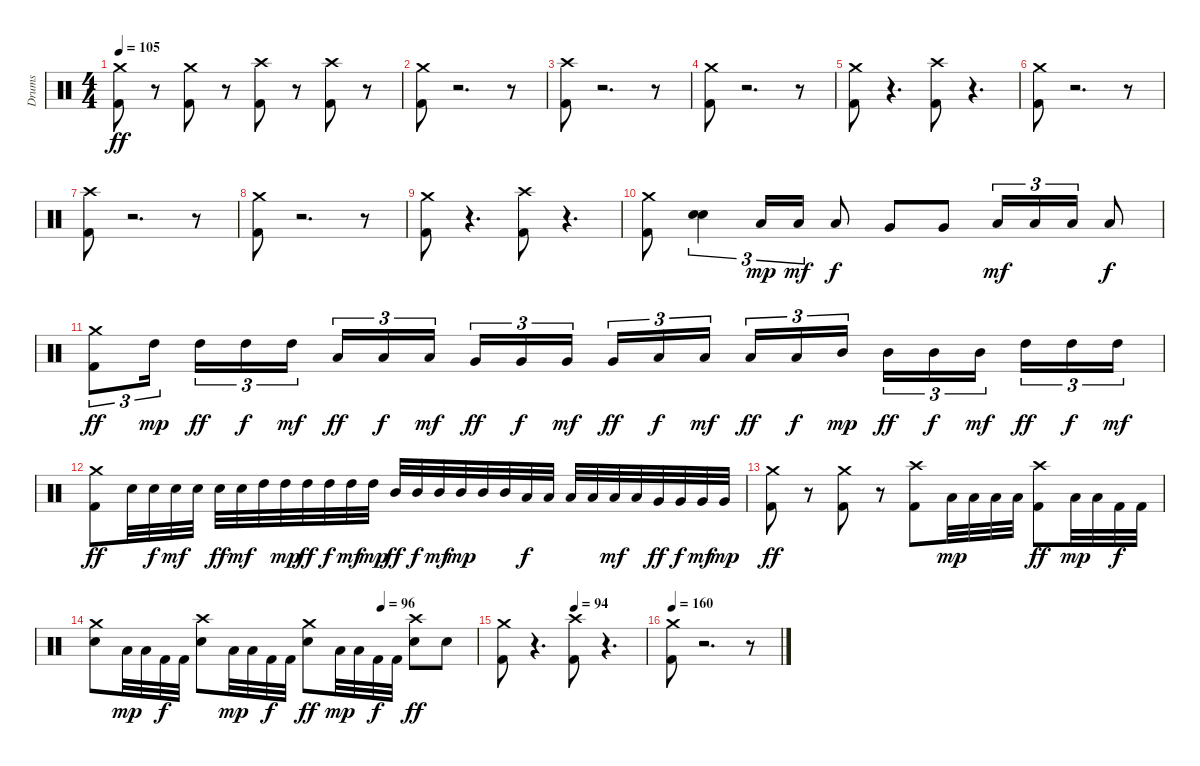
\track ("Drums" "Drums") {instrument percussion}
\staff {score}
\articulation defaults
\ts (4 4)
\tempo 105
\clef neutral
\ks c
("Kick (hit) 2" "Crash medium (hit)").8{dy ff} r.8 ("Kick (hit) 2" "Crash medium (hit)").8 r.8 ("Kick (hit) 2" "Crash high (hit)").8 r.8 ("Kick (hit) 2" "Crash high (hit)").8 r.8 |
("Kick (hit) 2" "Crash medium (hit)").8 r.2{d} r.8 |
("Kick (hit) 2" "Crash high (hit)").8 r.2{d} r.8 |
("Kick (hit) 2" "Crash medium (hit)").8 r.2{d} r.8 |
("Kick (hit) 2" "Crash medium (hit)").8 r.4{d} ("Kick (hit) 2" "Crash high (hit)").8 r.4{d} |
("Kick (hit) 2" "Crash medium (hit)").8 r.2{d} r.8 |
("Kick (hit) 2" "Crash high (hit)").8 r.2{d} r.8 |
("Kick (hit) 2" "Crash medium (hit)").8 r.2{d} r.8 |
("Kick (hit) 2" "Crash medium (hit)").8 r.4{d} ("Kick (hit) 2" "Crash high (hit)").8 r.4{d} |
("Kick (hit) 2" "Crash medium (hit)").8 ("Electric Snare (hit)" "Electric Snare (hit)").4{tu (3 2)} "Low Tom (hit)".16{tu (3 2) dy mp} "Low Tom (hit)".16{tu (3 2) dy mf} "Low Tom (hit)".8{dy f} "Very Low Tom (hit)".8 "Very Low Tom (hit)".8 "Low Floor Tom (hit)".16{tu (3 2) dy mf} "Low Floor Tom (hit)".16{tu (3 2)} "Low Floor Tom (hit)".16{tu (3 2)} "Low Floor Tom (hit)".8{dy f} |
("Kick (hit) 2" "Crash medium (hit)").8{tu (3 2) dy ff} "High Tom (hit)".16{tu (3 2) dy mp} "High Tom (hit)".16{tu (3 2) dy ff} "High Tom (hit)".16{tu (3 2) dy f} "High Tom (hit)".16{tu (3 2) dy mf} "Low Tom (hit)".16{tu (3 2) dy ff} "Low Tom (hit)".16{tu (3 2) dy f} "Low Tom (hit)".16{tu (3 2) dy mf} "Very Low Tom (hit)".16{tu (3 2) dy ff} "Very Low Tom (hit)".16{tu (3 2) dy f} "Very Low Tom (hit)".16{tu (3 2) dy mf} "Very Low Tom (hit)".16{tu (3 2) dy ff} "Low Tom (hit)".16{tu (3 2) dy f} "Low Tom (hit)".16{tu (3 2) dy mf} "Low Tom (hit)".16{tu (3 2) dy ff} "Low Tom (hit)".16{tu (3 2) dy f} "Mid Tom (hit)".16{tu (3 2) dy mp} "Mid Tom (hit)".16{tu (3 2) dy ff} "Mid Tom (hit)".16{tu (3 2) dy f} "Mid Tom (hit)".16{tu (3 2) dy mf} "High Tom (hit)".16{tu (3 2) dy ff} "High Tom (hit)".16{tu (3 2) dy f} "High Tom (hit)".16{tu (3 2) dy mf} |
("Kick (hit) 2" "Crash medium (hit)").8{dy ff} "Electric Snare (hit)".32 "Electric Snare (hit)".32{dy f} "Electric Snare (hit)".32{dy mf} "Electric Snare (hit)".32 "Electric Snare (hit)".32{dy ff} "Electric Snare (hit)".32{dy mf} "High Tom (hit)".32 "High Tom (hit)".32{dy mp} "High Tom (hit)".32{dy ff} "High Tom (hit)".32{dy f} "High Tom (hit)".32{dy mf} "High Tom (hit)".32{dy mp} "Mid Tom (hit)".32{dy ff} "Mid Tom (hit)".32{dy f} "Mid Tom (hit)".32{dy mf} "Mid Tom (hit)".32{dy mp} "Mid Tom (hit)".32 "Mid Tom (hit)".32 "Low Tom (hit)".32{dy f} "Low Tom (hit)".32 "Low Tom (hit)".32 "Low Tom (hit)".32 "Low Tom (hit)".32{dy mf} "Low Tom (hit)".32 "Very Low Tom (hit)".32{dy ff} "Very Low Tom (hit)".32{dy f} "Very Low Tom (hit)".32{dy mf} "Very Low Tom (hit)".32{dy mp} |
("Kick (hit) 2" "Crash medium (hit)").8{dy ff} r.8 ("Kick (hit) 2" "Crash medium (hit)").8 r.8 ("Kick (hit) 2" "Crash high (hit)").8 "Low Floor Tom (hit)".32{dy mp} "Low Floor Tom (hit)".32 "Low Floor Tom (hit)".32 "Low Floor Tom (hit)".32 ("Kick (hit) 2" "Crash high (hit)").8{dy ff} "Low Floor Tom (hit)".32{dy mp} "Low Floor Tom (hit)".32 "Kick (hit) 2".32{dy f} "Kick (hit) 2".32 |
\tempo (96 0.75)
("Electric Snare (hit)" "Crash medium (hit)").8 "Low Floor Tom (hit)".32{dy mp} "Low Floor Tom (hit)".32 "Kick (hit) 2".32{dy f} "Kick (hit) 2".32 ("Electric Snare (hit)" "Crash high (hit)").8 "Low Floor Tom (hit)".32{dy mp} "Low Floor Tom (hit)".32 "Kick (hit) 2".32{dy f} "Kick (hit) 2".32 ("Electric Snare (hit)" "Crash medium (hit)").8{dy ff} "Low Floor Tom (hit)".32{dy mp} "Low Floor Tom (hit)".32 "Kick (hit) 2".32{dy f} "Kick (hit) 2".32 ("Electric Snare (hit)" "Crash high (hit)").8{dy ff} "Electric Snare (hit)".8 |
\tempo (94 0.5)
("Kick (hit) 2" "Crash medium (hit)").8 r.4{d} ("Kick (hit) 2" "Crash high (hit)").8 r.4{d} |
\tempo 160
("Kick (hit) 2" "Crash medium (hit)").8 r.2{d} r.8
